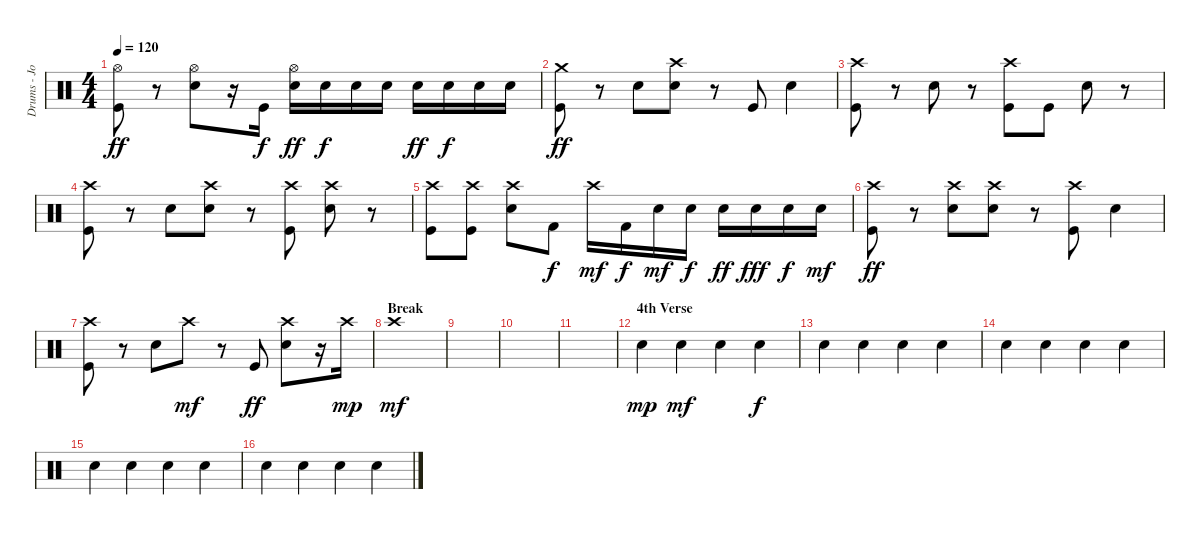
\track ("Drums - Josh Klinghoffer" "Drums - Jo") {instrument percussion}
\staff {score}
\articulation defaults
\ts (4 4)
\tempo 120
\clef neutral
\ks c
("Hi-Hat (open)" "Kick (hit)").8{dy ff} r.8 ("Hi-Hat (open)" "Snare (hit) 2").8 r.16 "Kick (hit)".16{dy f} ("Hi-Hat (open)" "Snare (hit) 2").16{dy ff} "Snare (hit) 2".16{dy f} "Snare (hit) 2".16 "Snare (hit) 2".16 "Snare (hit) 2".16{dy ff} "Snare (hit) 2".16{dy f} "Snare (hit) 2".16 "Snare (hit) 2".16 |
("Crash medium (hit)" "Kick (hit)").8{dy ff} r.8 "Snare (hit) 2".8 ("Crash high (hit)" "Snare (hit) 2").8 r.8 "Kick (hit)".8 "Snare (hit) 2".4 |
("Crash high (hit)" "Kick (hit)").8 r.8 "Snare (hit) 2".8 r.8 ("Crash high (hit)" "Kick (hit)").8 "Kick (hit)".8 "Snare (hit) 2".8 r.8 |
("Crash high (hit)" "Kick (hit)").8 r.8 "Snare (hit) 2".8 ("Crash high (hit)" "Snare (hit) 2").8 r.8 ("Crash high (hit)" "Kick (hit)").8 ("Crash high (hit)" "Snare (hit) 2").8 r.8 |
("Crash high (hit)" "Kick (hit)").8 ("Crash high (hit)" "Kick (hit)").8 ("Crash high (hit)" "Snare (hit) 2").8 "Kick (hit) 2".8{dy f} "Crash high (hit)".16{dy mf} "Kick (hit) 2".16{dy f} "Snare (hit) 2".16{dy mf} "Snare (hit) 2".16{dy f} "Snare (hit) 2".16{dy ff} "Snare (hit) 2".16{dy fff} "Snare (hit) 2".16{dy f} "Snare (hit) 2".16{dy mf} |
("Crash high (hit)" "Kick (hit)").8{dy ff} r.8 ("Crash high (hit)" "Snare (hit) 2").8 ("Crash high (hit)" "Snare (hit) 2").8 r.8 ("Crash high (hit)" "Kick (hit)").8 "Snare (hit) 2".4 |
("Crash high (hit)" "Kick (hit)").8 r.8 "Snare (hit) 2".8 "Crash high (hit)".8{dy mf} r.8 "Kick (hit)".8{dy ff} ("Crash high (hit)" "Snare (hit) 2").8 r.16 "Crash high (hit)".16{dy mp} |
\section ("" "Break")
"Crash high (hit)".1{dy mf} |
|
|
|
\section ("" "4th Verse")
"Snare (hit) 2".4{dy mp} "Snare (hit) 2".4{dy mf} "Snare (hit) 2".4 "Snare (hit) 2".4{dy f} |
"Snare (hit) 2".4 "Snare (hit) 2".4 "Snare (hit) 2".4 "Snare (hit) 2".4 |
"Snare (hit) 2".4 "Snare (hit) 2".4 "Snare (hit) 2".4 "Snare (hit) 2".4 |
"Snare (hit) 2".4 "Snare (hit) 2".4 "Snare (hit) 2".4 "Snare (hit) 2".4 |
"Snare (hit) 2".4 "Snare (hit) 2".4 "Snare (hit) 2".4 "Snare (hit) 2".4
